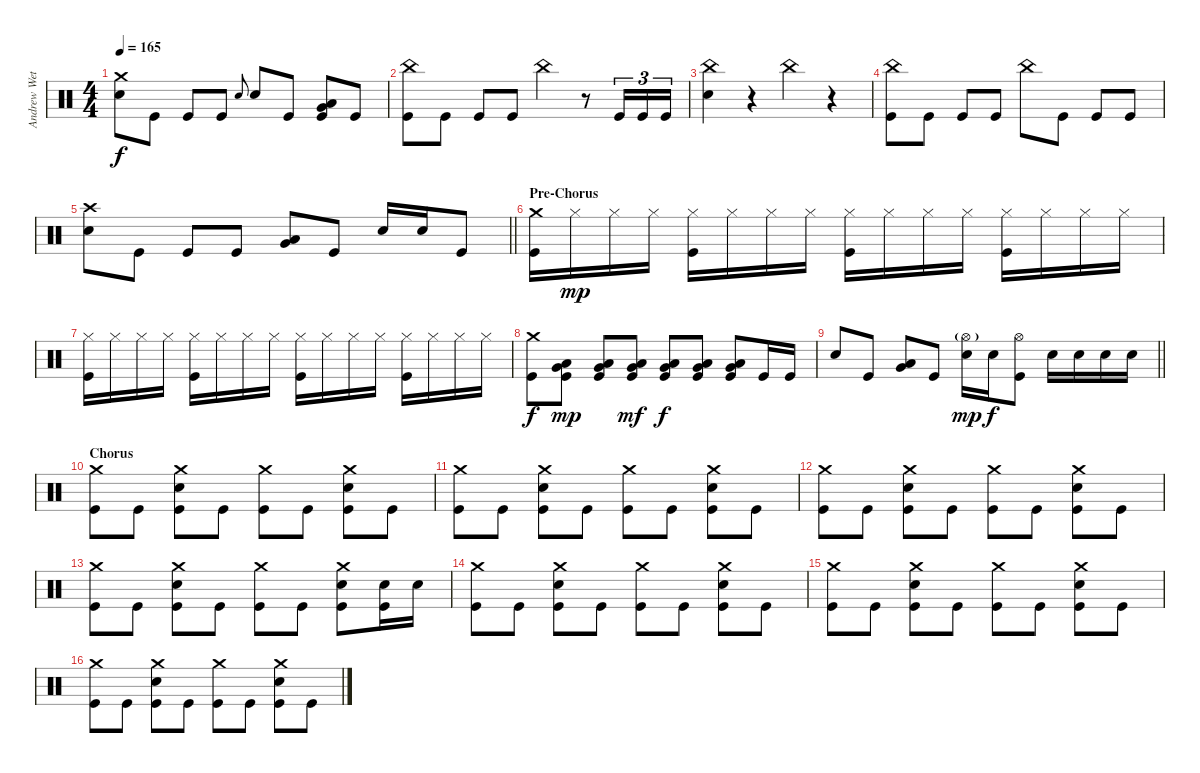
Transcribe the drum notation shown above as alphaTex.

\track ("Andrew Wetzel" "Andrew Wet") {instrument percussion}
\staff {score}
\articulation defaults
\ts (4 4)
\tempo 165
\clef neutral
\ks c
("Crash medium (hit)" "Snare (hit) 2").8{dy f} "Kick (hit)".8 "Kick (hit)".8 "Kick (hit)".8 "Snare (hit) 2".8{gr onbeat} "Snare (hit) 2".8 "Kick (hit)".8 ("Low Tom (hit)" "Very Low Tom (hit)" "Kick (hit)").8 "Kick (hit)".8 |
("China (hit)" "Kick (hit)").8 "Kick (hit)".8 "Kick (hit)".8 "Kick (hit)".8 "China (hit)".4 r.8 "Kick (hit)".16{tu (3 2)} "Kick (hit)".16{tu (3 2)} "Kick (hit)".16{tu (3 2)} |
("China (hit)" "Snare (hit) 2").4 r.4 "China (hit)".4 r.4 |
("China (hit)" "Kick (hit)").8 "Kick (hit)".8 "Kick (hit)".8 "Kick (hit)".8 "China (hit)".8 "Kick (hit)".8 "Kick (hit)".8 "Kick (hit)".8 |
\barLineRight lightlight
("Crash high (hit)" "Snare (hit) 2").8 "Kick (hit)".8 "Kick (hit)".8 "Kick (hit)".8 ("Low Tom (hit)" "Very Low Tom (hit)").8 "Kick (hit)".8 "Snare (hit) 2".16 "Snare (hit) 2".16 "Kick (hit)".8 |
\section ("" "Pre-Chorus")
("Crash medium (hit)" "Kick (hit)").16 "Hi-Hat (closed)".16{dy mp} "Hi-Hat (closed)".16 "Hi-Hat (closed)".16 ("Hi-Hat (closed)" "Kick (hit)").16 "Hi-Hat (closed)".16 "Hi-Hat (closed)".16 "Hi-Hat (closed)".16 ("Hi-Hat (closed)" "Kick (hit)").16 "Hi-Hat (closed)".16 "Hi-Hat (closed)".16 "Hi-Hat (closed)".16 ("Hi-Hat (closed)" "Kick (hit)").16 "Hi-Hat (closed)".16 "Hi-Hat (closed)".16 "Hi-Hat (closed)".16 |
("Hi-Hat (closed)" "Kick (hit)").16 "Hi-Hat (closed)".16 "Hi-Hat (closed)".16 "Hi-Hat (closed)".16 ("Hi-Hat (closed)" "Kick (hit)").16 "Hi-Hat (closed)".16 "Hi-Hat (closed)".16 "Hi-Hat (closed)".16 ("Hi-Hat (closed)" "Kick (hit)").16 "Hi-Hat (closed)".16 "Hi-Hat (closed)".16 "Hi-Hat (closed)".16 ("Hi-Hat (closed)" "Kick (hit)").16 "Hi-Hat (closed)".16 "Hi-Hat (closed)".16 "Hi-Hat (closed)".16 |
("Crash medium (hit)" "Kick (hit)").8{dy f} ("Low Tom (hit)" "Very Low Tom (hit)" "Kick (hit)").8{dy mp} ("Low Tom (hit)" "Very Low Tom (hit)" "Kick (hit)").8 ("Low Tom (hit)" "Very Low Tom (hit)" "Kick (hit)").8{dy mf} ("Low Tom (hit)" "Very Low Tom (hit)" "Kick (hit)").8{dy f} ("Low Tom (hit)" "Very Low Tom (hit)" "Kick (hit)").8 ("Low Tom (hit)" "Very Low Tom (hit)" "Kick (hit)").8 "Kick (hit)".16 "Kick (hit)".16 |
\barLineRight lightlight "Snare (hit) 2".8 "Kick (hit)".8
("Low Tom (hit)" "Very Low Tom (hit)").8 "Kick (hit)".8 ("Hi-Hat (open)"{g} "Snare (hit) 2").16{dy mp} "Snare (hit) 2".16{dy f} ("Hi-Hat (open)" "Kick (hit)").8 "Snare (hit) 2".16 "Snare (hit) 2".16 "Snare (hit) 2".16 "Snare (hit) 2".16 |
\section ("" "Chorus")
("Crash medium (hit)" "Kick (hit)").8 "Kick (hit)".8 ("Crash medium (hit)" "Snare (hit) 2" "Kick (hit)").8 "Kick (hit)".8 ("Crash medium (hit)" "Kick (hit)").8 "Kick (hit)".8 ("Crash medium (hit)" "Snare (hit) 2" "Kick (hit)").8 "Kick (hit)".8 |
("Crash medium (hit)" "Kick (hit)").8 "Kick (hit)".8 ("Crash medium (hit)" "Snare (hit) 2" "Kick (hit)").8 "Kick (hit)".8 ("Crash medium (hit)" "Kick (hit)").8 "Kick (hit)".8 ("Crash medium (hit)" "Snare (hit) 2" "Kick (hit)").8 "Kick (hit)".8 |
("Crash medium (hit)" "Kick (hit)").8 "Kick (hit)".8 ("Crash medium (hit)" "Snare (hit) 2" "Kick (hit)").8 "Kick (hit)".8 ("Crash medium (hit)" "Kick (hit)").8 "Kick (hit)".8 ("Crash medium (hit)" "Snare (hit) 2" "Kick (hit)").8 "Kick (hit)".8 |
("Crash medium (hit)" "Kick (hit)").8 "Kick (hit)".8 ("Crash medium (hit)" "Snare (hit) 2" "Kick (hit)").8 "Kick (hit)".8 ("Crash medium (hit)" "Kick (hit)").8 "Kick (hit)".8 ("Crash medium (hit)" "Snare (hit) 2" "Kick (hit)").8 ("Snare (hit) 2" "Kick (hit)").16 "Snare (hit) 2".16 |
("Crash medium (hit)" "Kick (hit)").8 "Kick (hit)".8 ("Crash medium (hit)" "Snare (hit) 2" "Kick (hit)").8 "Kick (hit)".8 ("Crash medium (hit)" "Kick (hit)").8 "Kick (hit)".8 ("Crash medium (hit)" "Snare (hit) 2" "Kick (hit)").8 "Kick (hit)".8 |
("Crash medium (hit)" "Kick (hit)").8 "Kick (hit)".8 ("Crash medium (hit)" "Snare (hit) 2" "Kick (hit)").8 "Kick (hit)".8 ("Crash medium (hit)" "Kick (hit)").8 "Kick (hit)".8 ("Crash medium (hit)" "Snare (hit) 2" "Kick (hit)").8 "Kick (hit)".8 |
("Crash medium (hit)" "Kick (hit)").8 "Kick (hit)".8 ("Crash medium (hit)" "Snare (hit) 2" "Kick (hit)").8 "Kick (hit)".8 ("Crash medium (hit)" "Kick (hit)").8 "Kick (hit)".8 ("Crash medium (hit)" "Snare (hit) 2" "Kick (hit)").8 "Kick (hit)".8
